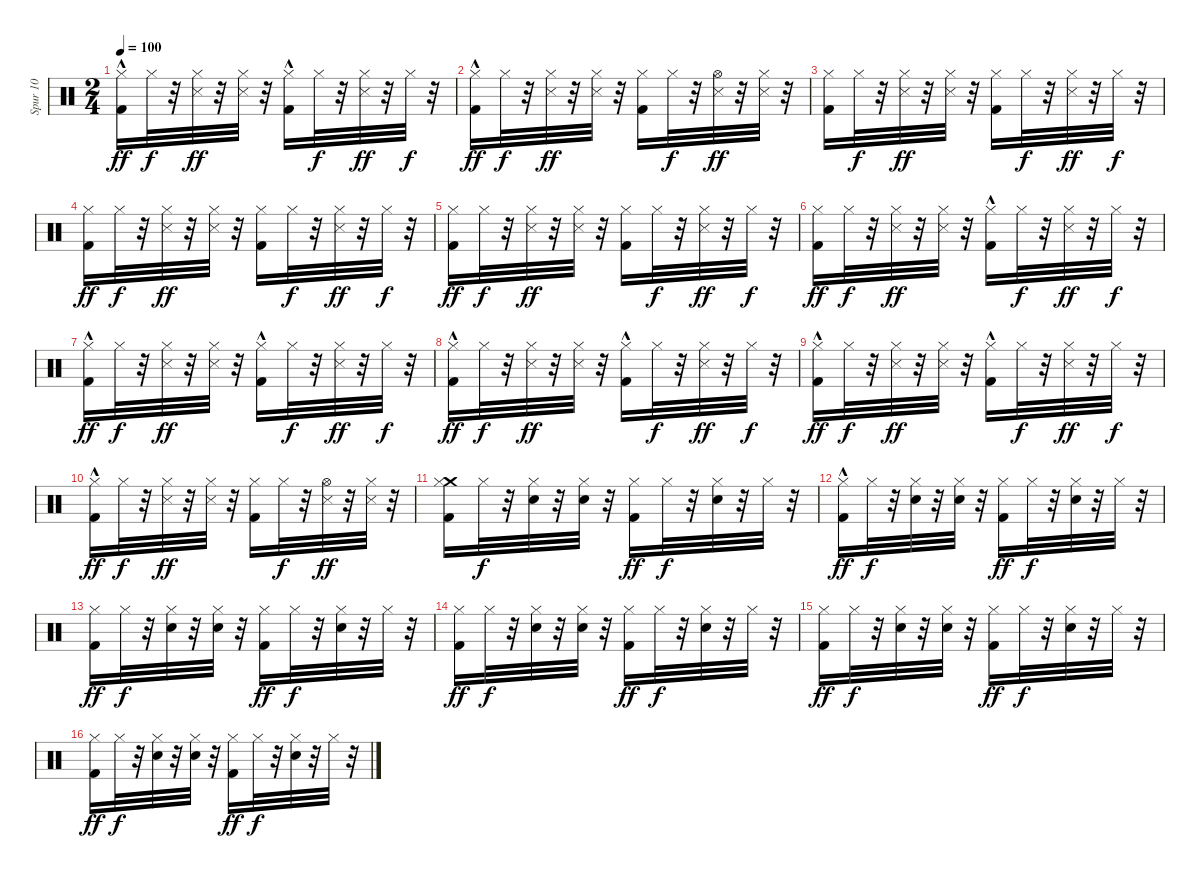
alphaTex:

\track ("Spur 10" "Spur 10") {instrument percussion}
\staff {score}
\articulation defaults
\ts (2 4)
\tempo 100
\clef neutral
\ks c
("Kick (hit) 2"{hac} "Hi-Hat (closed)").16{dy ff} "Hi-Hat (closed)".32{dy f} r.32 ("Snare (side stick) 3" "Hi-Hat (closed)").32{dy ff} r.32 ("Snare (side stick) 3" "Hi-Hat (closed)").32 r.32 ("Hi-Hat (closed)" "Kick (hit) 2"{hac}).16 "Hi-Hat (closed)".32{dy f} r.32 ("Snare (side stick) 3" "Hi-Hat (closed)").32{dy ff} r.32 "Hi-Hat (closed)".32{dy f} r.32 |
("Hi-Hat (closed)" "Kick (hit) 2"{hac}).16{dy ff} "Hi-Hat (closed)".32{dy f} r.32 ("Snare (side stick) 3" "Hi-Hat (closed)").32{dy ff} r.32 ("Hi-Hat (closed)" "Snare (side stick) 3").32 r.32 ("Hi-Hat (closed)" "Kick (hit) 2").16 "Hi-Hat (closed)".32{dy f} r.32 ("Snare (side stick) 3" "Hi-Hat (open)").32{dy ff} r.32 ("Snare (side stick) 3" "Hi-Hat (closed)").32 r.32 |
("Hi-Hat (closed)" "Kick (hit) 2").16{volume 14} "Hi-Hat (closed)".32{dy f} r.32 ("Snare (side stick) 3" "Hi-Hat (closed)").32{dy ff} r.32 ("Snare (side stick) 3" "Hi-Hat (closed)").32 r.32 ("Kick (hit) 2" "Hi-Hat (closed)").16 "Hi-Hat (closed)".32{dy f} r.32 ("Snare (side stick) 3" "Hi-Hat (closed)").32{dy ff} r.32 "Hi-Hat (closed)".32{dy f} r.32 |
("Hi-Hat (closed)" "Kick (hit) 2").16{dy ff} "Hi-Hat (closed)".32{dy f} r.32 ("Hi-Hat (closed)" "Snare (side stick) 3").32{dy ff} r.32 ("Hi-Hat (closed)" "Snare (side stick) 3").32 r.32 ("Kick (hit) 2" "Hi-Hat (closed)").16 "Hi-Hat (closed)".32{dy f} r.32 ("Snare (side stick) 3" "Hi-Hat (closed)").32{dy ff} r.32 "Hi-Hat (closed)".32{dy f} r.32 |
("Kick (hit) 2" "Hi-Hat (closed)").16{dy ff} "Hi-Hat (closed)".32{dy f} r.32 ("Snare (side stick) 3" "Hi-Hat (closed)").32{dy ff} r.32 ("Hi-Hat (closed)" "Snare (side stick) 3").32 r.32 ("Kick (hit) 2" "Hi-Hat (closed)").16 "Hi-Hat (closed)".32{dy f} r.32 ("Snare (side stick) 3" "Hi-Hat (closed)").32{dy ff} r.32 "Hi-Hat (closed)".32{dy f} r.32 |
("Kick (hit) 2" "Hi-Hat (closed)").16{dy ff} "Hi-Hat (closed)".32{dy f} r.32 ("Hi-Hat (closed)" "Snare (side stick) 3").32{dy ff} r.32 ("Hi-Hat (closed)" "Snare (side stick) 3").32 r.32 ("Kick (hit) 2"{hac} "Hi-Hat (closed)").16 "Hi-Hat (closed)".32{dy f} r.32 ("Snare (side stick) 3" "Hi-Hat (closed)").32{dy ff} r.32 "Hi-Hat (closed)".32{dy f} r.32 |
("Kick (hit) 2"{hac} "Hi-Hat (closed)").16{dy ff} "Hi-Hat (closed)".32{dy f} r.32 ("Snare (side stick) 3" "Hi-Hat (closed)").32{dy ff} r.32 ("Snare (side stick) 3" "Hi-Hat (closed)").32 r.32 ("Kick (hit) 2"{hac} "Hi-Hat (closed)").16 "Hi-Hat (closed)".32{dy f} r.32 ("Snare (side stick) 3" "Hi-Hat (closed)").32{dy ff} r.32 "Hi-Hat (closed)".32{dy f} r.32 |
("Kick (hit) 2"{hac} "Hi-Hat (closed)").16{dy ff} "Hi-Hat (closed)".32{dy f} r.32 ("Snare (side stick) 3" "Hi-Hat (closed)").32{dy ff} r.32 ("Snare (side stick) 3" "Hi-Hat (closed)").32 r.32 ("Kick (hit) 2"{hac} "Hi-Hat (closed)").16 "Hi-Hat (closed)".32{dy f} r.32 ("Snare (side stick) 3" "Hi-Hat (closed)").32{dy ff} r.32 "Hi-Hat (closed)".32{dy f} r.32 |
("Kick (hit) 2"{hac} "Hi-Hat (closed)").16{dy ff} "Hi-Hat (closed)".32{dy f} r.32 ("Snare (side stick) 3" "Hi-Hat (closed)").32{dy ff} r.32 ("Snare (side stick) 3" "Hi-Hat (closed)").32 r.32 ("Hi-Hat (closed)" "Kick (hit) 2"{hac}).16 "Hi-Hat (closed)".32{dy f} r.32 ("Snare (side stick) 3" "Hi-Hat (closed)").32{dy ff} r.32 "Hi-Hat (closed)".32{dy f} r.32 |
("Hi-Hat (closed)" "Kick (hit) 2"{hac}).16{dy ff} "Hi-Hat (closed)".32{dy f} r.32 ("Snare (side stick) 3" "Hi-Hat (closed)").32{dy ff} r.32 ("Hi-Hat (closed)" "Snare (side stick) 3").32 r.32 ("Hi-Hat (closed)" "Kick (hit) 2").16 "Hi-Hat (closed)".32{dy f} r.32 ("Snare (side stick) 3" "Hi-Hat (open)").32{dy ff} r.32 ("Snare (side stick) 3" "Hi-Hat (closed)").32 r.32 |
("Crash medium (hit)" "Kick (hit) 2" "Hi-Hat (closed)").16{volume 14} "Hi-Hat (closed)".32{dy f} r.32 ("Hi-Hat (closed)" "Electric Snare (hit)").32 r.32 ("Hi-Hat (closed)" "Electric Snare (hit)").32 r.32 ("Hi-Hat (closed)" "Kick (hit) 2").16{dy ff} "Hi-Hat (closed)".32{dy f} r.32 ("Hi-Hat (closed)" "Electric Snare (hit)").32 r.32 "Hi-Hat (closed)".32 r.32 |
("Hi-Hat (closed)" "Kick (hit) 2"{hac}).16{dy ff} "Hi-Hat (closed)".32{dy f} r.32 ("Hi-Hat (closed)" "Electric Snare (hit)").32 r.32 ("Hi-Hat (closed)" "Electric Snare (hit)").32 r.32 ("Hi-Hat (closed)" "Kick (hit) 2").16{dy ff} "Hi-Hat (closed)".32{dy f} r.32 ("Hi-Hat (closed)" "Electric Snare (hit)").32 r.32 "Hi-Hat (closed)".32 r.32 |
("Hi-Hat (closed)" "Kick (hit) 2").16{dy ff} "Hi-Hat (closed)".32{dy f} r.32 ("Hi-Hat (closed)" "Electric Snare (hit)").32 r.32 ("Hi-Hat (closed)" "Electric Snare (hit)").32 r.32 ("Hi-Hat (closed)" "Kick (hit) 2").16{dy ff} "Hi-Hat (closed)".32{dy f} r.32 ("Electric Snare (hit)" "Hi-Hat (closed)").32 r.32 "Hi-Hat (closed)".32 r.32 |
("Hi-Hat (closed)" "Kick (hit) 2").16{dy ff} "Hi-Hat (closed)".32{dy f} r.32 ("Hi-Hat (closed)" "Electric Snare (hit)").32 r.32 ("Hi-Hat (closed)" "Electric Snare (hit)").32 r.32 ("Hi-Hat (closed)" "Kick (hit) 2").16{dy ff} "Hi-Hat (closed)".32{dy f} r.32 ("Electric Snare (hit)" "Hi-Hat (closed)").32 r.32 "Hi-Hat (closed)".32 r.32 |
("Kick (hit) 2" "Hi-Hat (closed)").16{dy ff} "Hi-Hat (closed)".32{dy f} r.32 ("Electric Snare (hit)" "Hi-Hat (closed)").32 r.32 ("Hi-Hat (closed)" "Electric Snare (hit)").32 r.32 ("Hi-Hat (closed)" "Kick (hit) 2").16{dy ff} "Hi-Hat (closed)".32{dy f} r.32 ("Electric Snare (hit)" "Hi-Hat (closed)").32 r.32 "Hi-Hat (closed)".32 r.32 |
("Kick (hit) 2" "Hi-Hat (closed)").16{dy ff} "Hi-Hat (closed)".32{dy f} r.32 ("Electric Snare (hit)" "Hi-Hat (closed)").32 r.32 ("Hi-Hat (closed)" "Electric Snare (hit)").32 r.32 ("Kick (hit) 2" "Hi-Hat (closed)").16{dy ff} "Hi-Hat (closed)".32{dy f} r.32 ("Electric Snare (hit)" "Hi-Hat (closed)").32 r.32 "Hi-Hat (closed)".32 r.32
